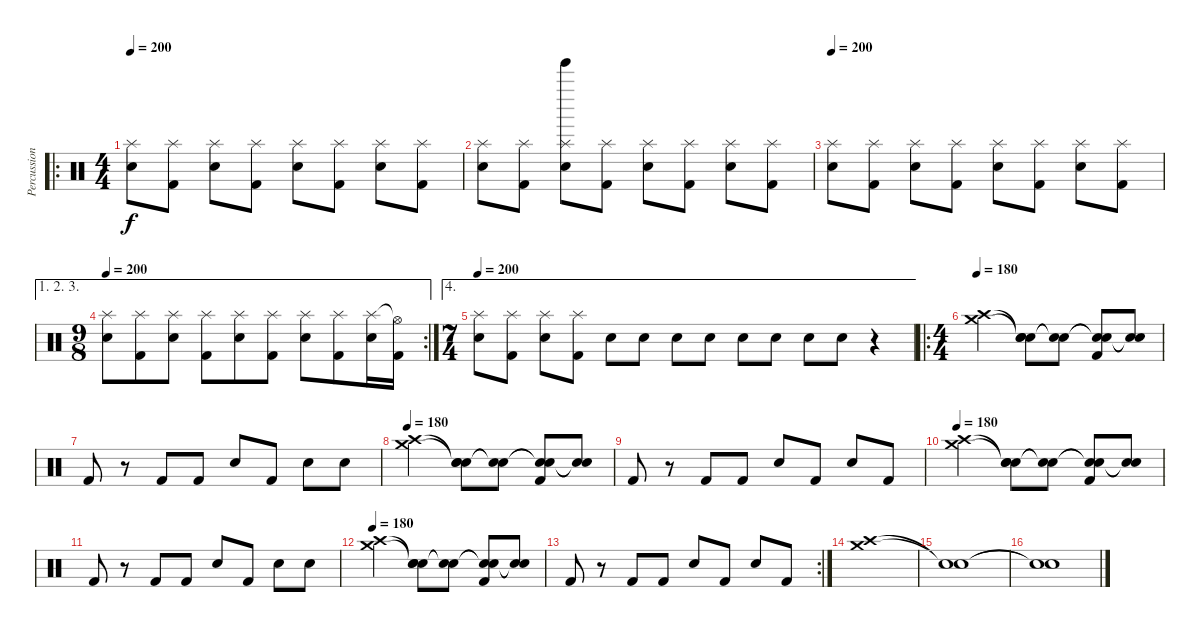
\track ("Percussion 1" "Percussion") {instrument percussion}
\staff {score}
\articulation defaults
\ro
\ts (4 4)
\tempo 200
\clef neutral
\ks c
("Splash (hit)" "Snare (hit) 2").8{dy f} ("Splash (hit)" "Kick (hit) 2").8 ("Splash (hit)" "Snare (hit) 2").8 ("Splash (hit)" "Kick (hit) 2").8 ("Splash (hit)" "Snare (hit) 2").8 ("Splash (hit)" "Kick (hit) 2").8 ("Splash (hit)" "Snare (hit) 2").8 ("Splash (hit)" "Kick (hit) 2").8 |
("Splash (hit)" "Snare (hit) 2").8 ("Splash (hit)" "Kick (hit) 2").8 ("Splash (hit)" "Tinkle Bell (hit)" "Snare (hit) 2").8 ("Splash (hit)" "Kick (hit) 2").8 ("Splash (hit)" "Snare (hit) 2").8 ("Splash (hit)" "Kick (hit) 2").8 ("Splash (hit)" "Snare (hit) 2").8 ("Splash (hit)" "Kick (hit) 2").8 |
\tempo 200
("Splash (hit)" "Snare (hit) 2").8 ("Splash (hit)" "Kick (hit) 2").8 ("Splash (hit)" "Snare (hit) 2").8 ("Splash (hit)" "Kick (hit) 2").8 ("Splash (hit)" "Snare (hit) 2").8 ("Splash (hit)" "Kick (hit) 2").8 ("Splash (hit)" "Snare (hit) 2").8 ("Splash (hit)" "Kick (hit) 2").8 |
\ae (1 2 3)
\rc 2
\ts (9 8)
\tempo 200
("Splash (hit)" "Snare (hit) 2").8 ("Splash (hit)" "Kick (hit) 2").8 ("Splash (hit)" "Snare (hit) 2").8 ("Splash (hit)" "Kick (hit) 2").8 ("Splash (hit)" "Snare (hit) 2").8 ("Splash (hit)" "Kick (hit) 2").8 ("Splash (hit)" "Snare (hit) 2").8 ("Splash (hit)" "Kick (hit) 2").8 ("Splash (hit)" "Snare (hit) 2").16 ("Hi-Hat (open)"{t} "Kick (hit) 2").16 |
\ae 4
\ts (7 4)
\tempo 200
("Splash (hit)" "Snare (hit) 2").8 ("Splash (hit)" "Kick (hit) 2").8 ("Splash (hit)" "Snare (hit) 2").8 ("Splash (hit)" "Kick (hit) 2").8 "Snare (hit) 2".8 "Snare (hit) 2".8 "Snare (hit) 2".8 "Snare (hit) 2".8 "Snare (hit) 2".8 "Snare (hit) 2".8 "Snare (hit) 2".8 "Snare (hit) 2".8 r.4 |
\ro
\ts (4 4)
\tempo 180
("Crash high (hit)" "Crash medium (hit)").2 ("Snare (hit)"{t} "Snare (hit)"{t} "Snare (hit) 2").8 ("Snare (hit)"{t} "Snare (hit)"{t}).8 ("Snare (hit)"{t} "Snare (hit)"{t} "Kick (hit) 2").8 ("Snare (hit)"{t} "Snare (hit)"{t}).8 |
"Kick (hit) 2".8 r.8 "Kick (hit) 2".8 "Kick (hit) 2".8 "Snare (hit) 2".8 "Kick (hit) 2".8 "Snare (hit) 2".8 "Snare (hit) 2".8 |
\tempo 180
("Crash high (hit)" "Crash medium (hit)").2 ("Snare (hit)"{t} "Snare (hit)"{t} "Snare (hit) 2").8 ("Snare (hit)"{t} "Snare (hit)"{t}).8 ("Snare (hit)"{t} "Snare (hit)"{t} "Kick (hit) 2").8 ("Snare (hit)"{t} "Snare (hit)"{t}).8 |
"Kick (hit) 2".8 r.8 "Kick (hit) 2".8 "Kick (hit) 2".8 "Snare (hit) 2".8 "Kick (hit) 2".8 "Snare (hit) 2".8 "Kick (hit) 2".8 |
\tempo 180
("Crash high (hit)" "Crash medium (hit)").2 ("Snare (hit)"{t} "Snare (hit)"{t} "Snare (hit) 2").8 ("Snare (hit)"{t} "Snare (hit)"{t}).8 ("Snare (hit)"{t} "Snare (hit)"{t} "Kick (hit) 2").8 ("Snare (hit)"{t} "Snare (hit)"{t}).8 |
"Kick (hit) 2".8 r.8 "Kick (hit) 2".8 "Kick (hit) 2".8 "Snare (hit) 2".8 "Kick (hit) 2".8 "Snare (hit) 2".8 "Snare (hit) 2".8 |
\tempo 180
("Crash high (hit)" "Crash medium (hit)").2 ("Snare (hit)"{t} "Snare (hit)"{t} "Snare (hit) 2").8 ("Snare (hit)"{t} "Snare (hit)"{t}).8 ("Snare (hit)"{t} "Snare (hit)"{t} "Kick (hit) 2").8 ("Snare (hit)"{t} "Snare (hit)"{t}).8 |
\rc 2 "Kick (hit) 2".8
r.8 "Kick (hit) 2".8 "Kick (hit) 2".8 "Snare (hit) 2".8 "Kick (hit) 2".8 "Snare (hit) 2".8 "Kick (hit) 2".8 |
("Crash high (hit)" "Crash medium (hit)").1 |
("Snare (hit)"{t} "Snare (hit)"{t}).1 |
("Snare (hit)"{t} "Snare (hit)"{t}).1
